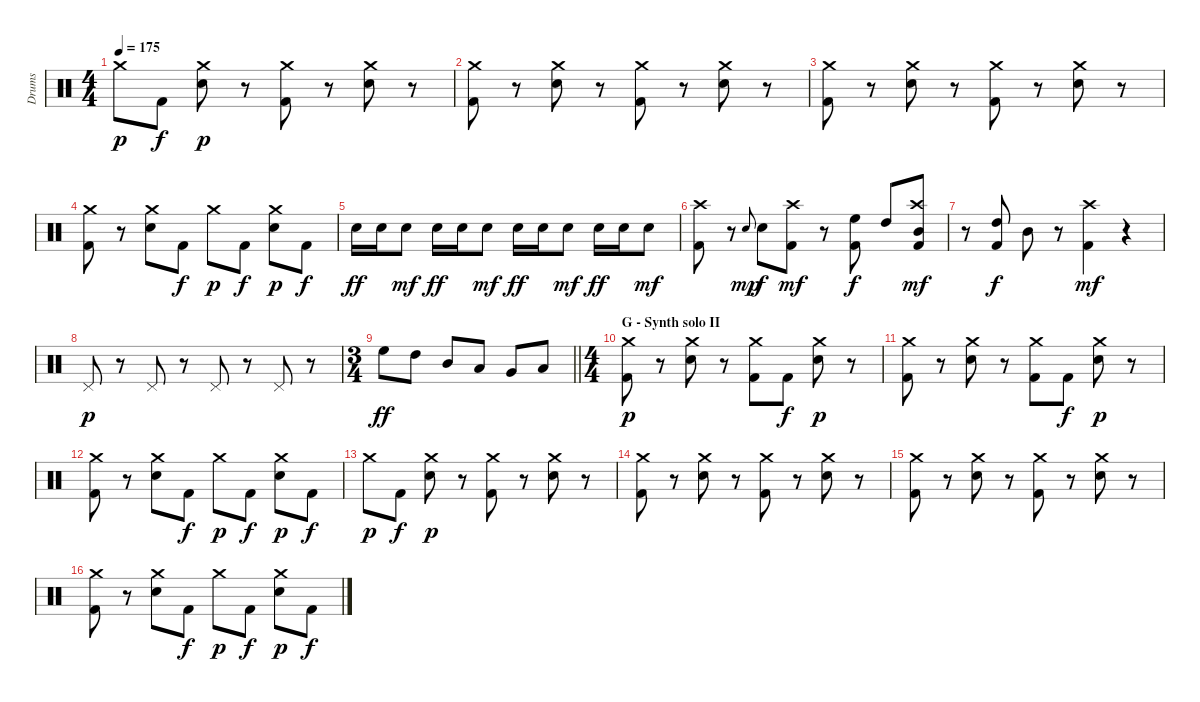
\track ("Drums" "Drums") {instrument percussion}
\staff {score}
\articulation defaults
\ts (4 4)
\tempo 175
\clef neutral
\ks c "Crash medium (hit)".8{dy p} "Kick (hit) 2".8{dy f}
("Crash medium (hit)" "Electric Snare (hit)").8{dy p} r.8 ("Crash medium (hit)" "Kick (hit) 2").8 r.8 ("Crash medium (hit)" "Electric Snare (hit)").8 r.8 |
("Crash medium (hit)" "Kick (hit) 2").8 r.8 ("Crash medium (hit)" "Electric Snare (hit)").8 r.8 ("Crash medium (hit)" "Kick (hit) 2").8 r.8 ("Crash medium (hit)" "Electric Snare (hit)").8 r.8 |
("Crash medium (hit)" "Kick (hit) 2").8 r.8 ("Crash medium (hit)" "Electric Snare (hit)").8 r.8 ("Crash medium (hit)" "Kick (hit) 2").8 r.8 ("Crash medium (hit)" "Electric Snare (hit)").8 r.8 |
("Crash medium (hit)" "Kick (hit) 2").8 r.8 ("Crash medium (hit)" "Electric Snare (hit)").8 "Kick (hit) 2".8{dy f} "Crash medium (hit)".8{dy p} "Kick (hit) 2".8{dy f} ("Crash medium (hit)" "Electric Snare (hit)").8{dy p} "Kick (hit) 2".8{dy f} |
"Electric Snare (hit)".16{dy ff} "Electric Snare (hit)".16 "Electric Snare (hit)".8{dy mf} "Electric Snare (hit)".16{dy ff} "Electric Snare (hit)".16 "Electric Snare (hit)".8{dy mf} "Electric Snare (hit)".16{dy ff} "Electric Snare (hit)".16 "Electric Snare (hit)".8{dy mf} "Electric Snare (hit)".16{dy ff} "Electric Snare (hit)".16 "Electric Snare (hit)".8{dy mf} |
("Crash high (hit)" "Kick (hit) 2").8 r.8 "Electric Snare (hit)".8{gr onbeat dy mp} "Electric Snare (hit)".8{dy f} ("Crash high (hit)" "Kick (hit) 2").8{dy mf} r.8 ("High Floor Tom (hit)" "Kick (hit) 2").8{dy f} "High Tom (hit)".8 ("Crash high (hit)" "Mid Tom (hit)" "Kick (hit) 2").8{dy mf} |
r.8 ("High Tom (hit)" "Kick (hit) 2").8{dy f} "Mid Tom (hit)".8 r.8 ("Crash high (hit)" "Kick (hit) 2").4{dy mf} r.4 |
"Pedal Hi-Hat (hit)".8{dy p} r.8 "Pedal Hi-Hat (hit)".8 r.8 "Pedal Hi-Hat (hit)".8 r.8 "Pedal Hi-Hat (hit)".8 r.8 |
\ts (3 4)
\barLineRight lightlight "High Floor Tom (hit)".8{dy ff} "High Tom (hit)".8 "Mid Tom (hit)".8 "Low Tom (hit)".8 "Very Low Tom (hit)".8 "Low Floor Tom (hit)".8
|
\ts (4 4)
\section ("" "G - Synth solo II")
("Crash medium (hit)" "Kick (hit) 2").8{dy p} r.8 ("Crash medium (hit)" "Electric Snare (hit)").8 r.8 ("Crash medium (hit)" "Kick (hit) 2").8 "Kick (hit) 2".8{dy f} ("Crash medium (hit)" "Electric Snare (hit)").8{dy p} r.8 |
("Crash medium (hit)" "Kick (hit) 2").8 r.8 ("Crash medium (hit)" "Electric Snare (hit)").8 r.8 ("Crash medium (hit)" "Kick (hit) 2").8 "Kick (hit) 2".8{dy f} ("Crash medium (hit)" "Electric Snare (hit)").8{dy p} r.8 |
("Crash medium (hit)" "Kick (hit) 2").8 r.8 ("Crash medium (hit)" "Electric Snare (hit)").8 "Kick (hit) 2".8{dy f} "Crash medium (hit)".8{dy p} "Kick (hit) 2".8{dy f} ("Crash medium (hit)" "Electric Snare (hit)").8{dy p} "Kick (hit) 2".8{dy f} |
"Crash medium (hit)".8{dy p} "Kick (hit) 2".8{dy f} ("Crash medium (hit)" "Electric Snare (hit)").8{dy p} r.8 ("Crash medium (hit)" "Kick (hit) 2").8 r.8 ("Crash medium (hit)" "Electric Snare (hit)").8 r.8 |
("Crash medium (hit)" "Kick (hit) 2").8 r.8 ("Crash medium (hit)" "Electric Snare (hit)").8 r.8 ("Crash medium (hit)" "Kick (hit) 2").8 r.8 ("Crash medium (hit)" "Electric Snare (hit)").8 r.8 |
("Crash medium (hit)" "Kick (hit) 2").8 r.8 ("Crash medium (hit)" "Electric Snare (hit)").8 r.8 ("Crash medium (hit)" "Kick (hit) 2").8 r.8 ("Crash medium (hit)" "Electric Snare (hit)").8 r.8 |
("Crash medium (hit)" "Kick (hit) 2").8 r.8 ("Crash medium (hit)" "Electric Snare (hit)").8 "Kick (hit) 2".8{dy f} "Crash medium (hit)".8{dy p} "Kick (hit) 2".8{dy f} ("Crash medium (hit)" "Electric Snare (hit)").8{dy p} "Kick (hit) 2".8{dy f}
